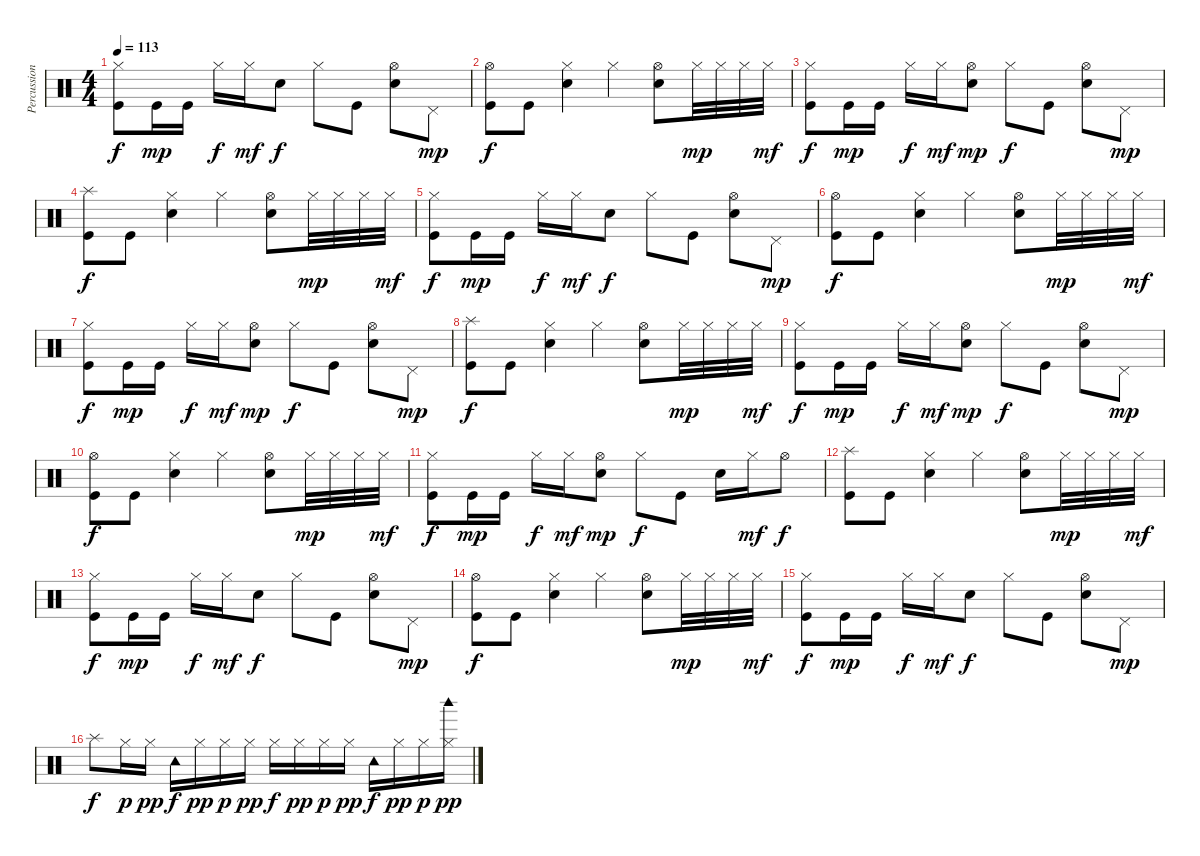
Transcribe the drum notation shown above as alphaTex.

\track ("Percussioni" "Percussion") {instrument percussion}
\staff {score}
\articulation defaults
\ts (4 4)
\tempo 113
\clef neutral
\ks c
("Hi-Hat (closed)" "Kick (hit)").8{dy f} "Kick (hit)".16{dy mp} "Kick (hit)".16 "Hi-Hat (closed)".16{dy f} "Hi-Hat (closed)".16{dy mf} "Snare (hit) 2".8{dy f} "Hi-Hat (closed)".8 "Kick (hit)".8 ("Hi-Hat (open)" "Snare (hit) 2").8 "Pedal Hi-Hat (hit)".8{dy mp} |
("Hi-Hat (open)" "Kick (hit)").8{dy f} "Kick (hit)".8 ("Hi-Hat (closed)" "Snare (hit) 2").4 "Hi-Hat (closed)".4 ("Hi-Hat (open)" "Snare (hit) 2").8 "Hi-Hat (closed)".32{dy mp} "Hi-Hat (closed)".32 "Hi-Hat (closed)".32 "Hi-Hat (closed)".32{dy mf} |
("Hi-Hat (closed)" "Kick (hit)").8{dy f} "Kick (hit)".16{dy mp} "Kick (hit)".16 "Hi-Hat (closed)".16{dy f} "Hi-Hat (closed)".16{dy mf} ("Hi-Hat (open)" "Snare (hit) 2").8{dy mp} "Hi-Hat (closed)".8{dy f} "Kick (hit)".8 ("Hi-Hat (open)" "Snare (hit) 2").8 "Pedal Hi-Hat (hit)".8{dy mp} |
("Splash (hit)" "Kick (hit)").8{dy f} "Kick (hit)".8 ("Hi-Hat (closed)" "Snare (hit) 2").4 "Hi-Hat (closed)".4 ("Hi-Hat (open)" "Snare (hit) 2").8 "Hi-Hat (closed)".32{dy mp} "Hi-Hat (closed)".32 "Hi-Hat (closed)".32 "Hi-Hat (closed)".32{dy mf} |
("Hi-Hat (closed)" "Kick (hit)").8{dy f} "Kick (hit)".16{dy mp} "Kick (hit)".16 "Hi-Hat (closed)".16{dy f} "Hi-Hat (closed)".16{dy mf} "Snare (hit) 2".8{dy f} "Hi-Hat (closed)".8 "Kick (hit)".8 ("Hi-Hat (open)" "Snare (hit) 2").8 "Pedal Hi-Hat (hit)".8{dy mp} |
("Hi-Hat (open)" "Kick (hit)").8{dy f} "Kick (hit)".8 ("Hi-Hat (closed)" "Snare (hit) 2").4 "Hi-Hat (closed)".4 ("Hi-Hat (open)" "Snare (hit) 2").8 "Hi-Hat (closed)".32{dy mp} "Hi-Hat (closed)".32 "Hi-Hat (closed)".32 "Hi-Hat (closed)".32{dy mf} |
("Hi-Hat (closed)" "Kick (hit)").8{dy f} "Kick (hit)".16{dy mp} "Kick (hit)".16 "Hi-Hat (closed)".16{dy f} "Hi-Hat (closed)".16{dy mf} ("Hi-Hat (open)" "Snare (hit) 2").8{dy mp} "Hi-Hat (closed)".8{dy f} "Kick (hit)".8 ("Hi-Hat (open)" "Snare (hit) 2").8 "Pedal Hi-Hat (hit)".8{dy mp} |
("Splash (hit)" "Kick (hit)").8{dy f} "Kick (hit)".8 ("Hi-Hat (closed)" "Snare (hit) 2").4 "Hi-Hat (closed)".4 ("Hi-Hat (open)" "Snare (hit) 2").8 "Hi-Hat (closed)".32{dy mp} "Hi-Hat (closed)".32 "Hi-Hat (closed)".32 "Hi-Hat (closed)".32{dy mf} |
("Hi-Hat (closed)" "Kick (hit)").8{dy f} "Kick (hit)".16{dy mp} "Kick (hit)".16 "Hi-Hat (closed)".16{dy f} "Hi-Hat (closed)".16{dy mf} ("Hi-Hat (open)" "Snare (hit) 2").8{dy mp} "Hi-Hat (closed)".8{dy f} "Kick (hit)".8 ("Hi-Hat (open)" "Snare (hit) 2").8 "Pedal Hi-Hat (hit)".8{dy mp} |
("Hi-Hat (open)" "Kick (hit)").8{dy f} "Kick (hit)".8 ("Hi-Hat (closed)" "Snare (hit) 2").4 "Hi-Hat (closed)".4 ("Hi-Hat (open)" "Snare (hit) 2").8 "Hi-Hat (closed)".32{dy mp} "Hi-Hat (closed)".32 "Hi-Hat (closed)".32 "Hi-Hat (closed)".32{dy mf} |
("Hi-Hat (closed)" "Kick (hit)").8{dy f} "Kick (hit)".16{dy mp} "Kick (hit)".16 "Hi-Hat (closed)".16{dy f} "Hi-Hat (closed)".16{dy mf} ("Hi-Hat (open)" "Snare (hit) 2").8{dy mp} "Hi-Hat (closed)".8{dy f} "Kick (hit)".8 "Snare (hit) 2".16 "Hi-Hat (closed)".16{dy mf} "Hi-Hat (open)".8{dy f} |
("Splash (hit)" "Kick (hit)").8 "Kick (hit)".8 ("Hi-Hat (closed)" "Snare (hit) 2").4 "Hi-Hat (closed)".4 ("Hi-Hat (open)" "Snare (hit) 2").8 "Hi-Hat (closed)".32{dy mp} "Hi-Hat (closed)".32 "Hi-Hat (closed)".32 "Hi-Hat (closed)".32{dy mf} |
("Hi-Hat (closed)" "Kick (hit)").8{dy f} "Kick (hit)".16{dy mp} "Kick (hit)".16 "Hi-Hat (closed)".16{dy f} "Hi-Hat (closed)".16{dy mf} "Snare (hit) 2".8{dy f} "Hi-Hat (closed)".8 "Kick (hit)".8 ("Hi-Hat (open)" "Snare (hit) 2").8 "Pedal Hi-Hat (hit)".8{dy mp} |
("Hi-Hat (open)" "Kick (hit)").8{dy f} "Kick (hit)".8 ("Hi-Hat (closed)" "Snare (hit) 2").4 "Hi-Hat (closed)".4 ("Hi-Hat (open)" "Snare (hit) 2").8 "Hi-Hat (closed)".32{dy mp} "Hi-Hat (closed)".32 "Hi-Hat (closed)".32 "Hi-Hat (closed)".32{dy mf} |
("Hi-Hat (closed)" "Kick (hit)").8{dy f} "Kick (hit)".16{dy mp} "Kick (hit)".16 "Hi-Hat (closed)".16{dy f} "Hi-Hat (closed)".16{dy mf} "Snare (hit) 2".8{dy f} "Hi-Hat (closed)".8 "Kick (hit)".8 ("Hi-Hat (open)" "Snare (hit) 2").8 "Pedal Hi-Hat (hit)".8{dy mp} |
"Splash (hit)".8{dy f} "Hi-Hat (closed)".16{dy p} "Hi-Hat (closed)".16{dy pp} "Tambourine (hit)".16{dy f} "Hi-Hat (closed)".16{dy pp} "Hi-Hat (closed)".16{dy p} "Hi-Hat (closed)".16{dy pp} "Hi-Hat (closed)".16{dy f} "Hi-Hat (closed)".16{dy pp} "Hi-Hat (closed)".16{dy p} "Hi-Hat (closed)".16{dy pp} "Tambourine (hit)".16{dy f} "Hi-Hat (closed)".16{dy pp} "Hi-Hat (closed)".16{dy p} ("Woodblock high (hit)" "Hi-Hat (closed)").16{dy pp}
